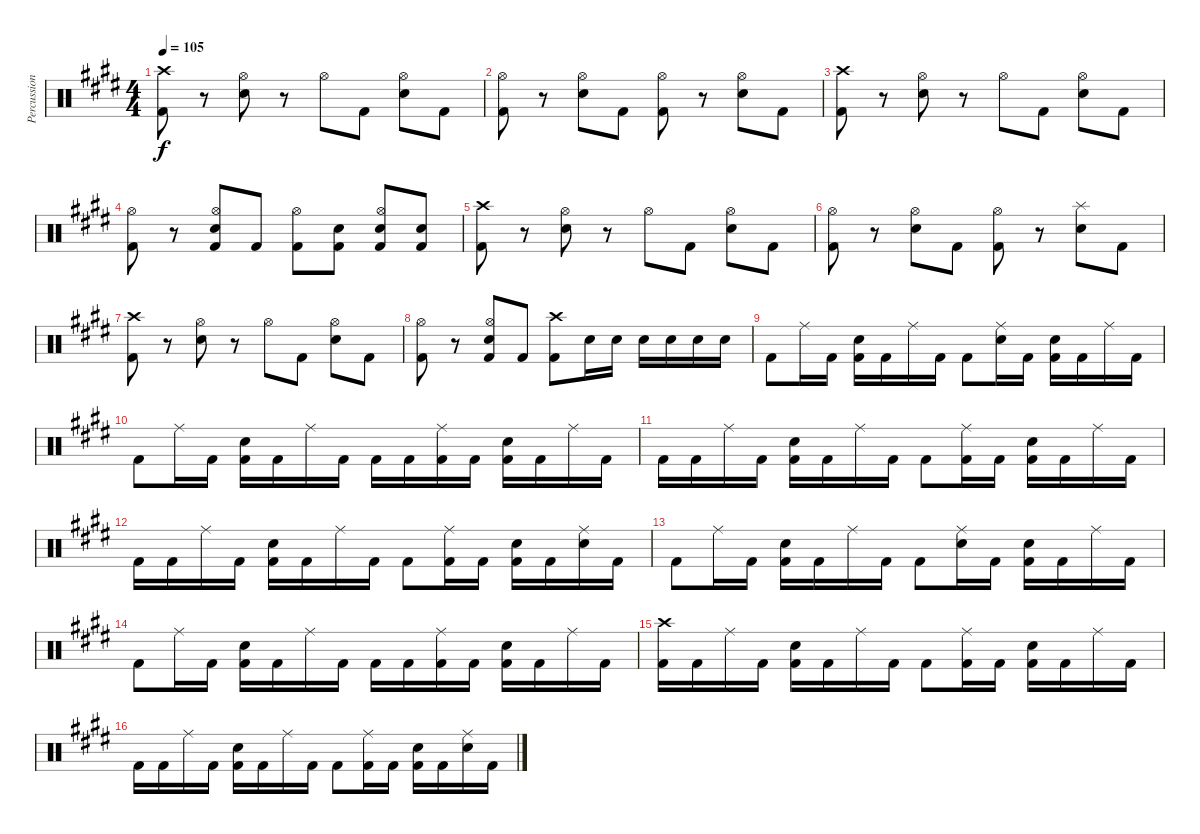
\track ("Percussion" "Percussion") {instrument percussion}
\staff {score}
\articulation defaults
\ts (4 4)
\tempo 105
\clef neutral
\ks c#minor
("Crash high (hit)" "Kick (hit) 2").8{dy f} r.8 ("Hi-Hat (open)" "Snare (hit) 2").8 r.8 "Hi-Hat (open)".8 "Kick (hit) 2".8 ("Hi-Hat (open)" "Snare (hit) 2").8 "Kick (hit) 2".8 |
("Hi-Hat (open)" "Kick (hit) 2").8 r.8 ("Hi-Hat (open)" "Snare (hit) 2").8 "Kick (hit) 2".8 ("Hi-Hat (open)" "Kick (hit) 2").8 r.8 ("Hi-Hat (open)" "Snare (hit) 2").8 "Kick (hit) 2".8 |
("Crash high (hit)" "Kick (hit) 2").8 r.8 ("Hi-Hat (open)" "Snare (hit) 2").8 r.8 "Hi-Hat (open)".8 "Kick (hit) 2".8 ("Hi-Hat (open)" "Snare (hit) 2").8 "Kick (hit) 2".8 |
("Hi-Hat (open)" "Kick (hit) 2").8 r.8 ("Hi-Hat (open)" "Snare (hit) 2" "Kick (hit) 2").8 "Kick (hit) 2".8 ("Hi-Hat (open)" "Kick (hit) 2").8 ("Snare (hit) 2" "Kick (hit) 2").8 ("Hi-Hat (open)" "Snare (hit) 2" "Kick (hit) 2").8 ("Snare (hit) 2" "Kick (hit) 2").8 |
("Crash high (hit)" "Kick (hit) 2").8 r.8 ("Hi-Hat (open)" "Snare (hit) 2").8 r.8 "Hi-Hat (open)".8 "Kick (hit) 2".8 ("Hi-Hat (open)" "Snare (hit) 2").8 "Kick (hit) 2".8 |
("Hi-Hat (open)" "Kick (hit) 2").8 r.8 ("Hi-Hat (open)" "Snare (hit) 2").8 "Kick (hit) 2".8 ("Hi-Hat (open)" "Kick (hit) 2").8 r.8 ("Splash (hit)" "Snare (hit) 2").8 "Kick (hit) 2".8 |
("Crash high (hit)" "Kick (hit) 2").8 r.8 ("Hi-Hat (open)" "Snare (hit) 2").8 r.8 "Hi-Hat (open)".8 "Kick (hit) 2".8 ("Hi-Hat (open)" "Snare (hit) 2").8 "Kick (hit) 2".8 |
("Hi-Hat (open)" "Kick (hit) 2").8 r.8 ("Hi-Hat (open)" "Snare (hit) 2" "Kick (hit) 2").8 "Kick (hit) 2".8 ("Crash high (hit)" "Kick (hit) 2").8 "Snare (hit) 2".16 "Snare (hit) 2".16 "Snare (hit) 2".16 "Snare (hit) 2".16 "Snare (hit) 2".16 "Snare (hit) 2".16 |
"Kick (hit) 2".8 "Ride (middle)".16 "Kick (hit) 2".16 ("Snare (hit) 2" "Kick (hit) 2").16 "Kick (hit) 2".16 "Ride (middle)".16 "Kick (hit) 2".16 "Kick (hit) 2".8 ("Ride (middle)" "Snare (hit) 2").16 "Kick (hit) 2".16 ("Snare (hit) 2" "Kick (hit) 2").16 "Kick (hit) 2".16 "Ride (middle)".16 "Kick (hit) 2".16 |
"Kick (hit) 2".8 "Ride (middle)".16 "Kick (hit) 2".16 ("Snare (hit) 2" "Kick (hit) 2").16 "Kick (hit) 2".16 "Ride (middle)".16 "Kick (hit) 2".16 "Kick (hit) 2".16 "Kick (hit) 2".16 ("Ride (middle)" "Kick (hit) 2").16 "Kick (hit) 2".16 ("Snare (hit) 2" "Kick (hit) 2").16 "Kick (hit) 2".16 "Ride (middle)".16 "Kick (hit) 2".16 |
"Kick (hit) 2".16 "Kick (hit) 2".16 "Ride (middle)".16 "Kick (hit) 2".16 ("Snare (hit) 2" "Kick (hit) 2").16 "Kick (hit) 2".16 "Ride (middle)".16 "Kick (hit) 2".16 "Kick (hit) 2".8 ("Ride (middle)" "Kick (hit) 2").16 "Kick (hit) 2".16 ("Snare (hit) 2" "Kick (hit) 2").16 "Kick (hit) 2".16 "Ride (middle)".16 "Kick (hit) 2".16 |
"Kick (hit) 2".16 "Kick (hit) 2".16 "Ride (middle)".16 "Kick (hit) 2".16 ("Snare (hit) 2" "Kick (hit) 2").16 "Kick (hit) 2".16 "Ride (middle)".16 "Kick (hit) 2".16 "Kick (hit) 2".8 ("Ride (middle)" "Kick (hit) 2").16 "Kick (hit) 2".16 ("Snare (hit) 2" "Kick (hit) 2").16 "Kick (hit) 2".16 ("Ride (middle)" "Snare (hit) 2").16 "Kick (hit) 2".16 |
"Kick (hit) 2".8 "Ride (middle)".16 "Kick (hit) 2".16 ("Snare (hit) 2" "Kick (hit) 2").16 "Kick (hit) 2".16 "Ride (middle)".16 "Kick (hit) 2".16 "Kick (hit) 2".8 ("Ride (middle)" "Snare (hit) 2").16 "Kick (hit) 2".16 ("Snare (hit) 2" "Kick (hit) 2").16 "Kick (hit) 2".16 "Ride (middle)".16 "Kick (hit) 2".16 |
"Kick (hit) 2".8 "Ride (middle)".16 "Kick (hit) 2".16 ("Snare (hit) 2" "Kick (hit) 2").16 "Kick (hit) 2".16 "Ride (middle)".16 "Kick (hit) 2".16 "Kick (hit) 2".16 "Kick (hit) 2".16 ("Ride (middle)" "Kick (hit) 2").16 "Kick (hit) 2".16 ("Snare (hit) 2" "Kick (hit) 2").16 "Kick (hit) 2".16 "Ride (middle)".16 "Kick (hit) 2".16 |
("Crash high (hit)" "Kick (hit) 2").16 "Kick (hit) 2".16 "Ride (middle)".16 "Kick (hit) 2".16 ("Snare (hit) 2" "Kick (hit) 2").16 "Kick (hit) 2".16 "Ride (middle)".16 "Kick (hit) 2".16 "Kick (hit) 2".8 ("Ride (middle)" "Kick (hit) 2").16 "Kick (hit) 2".16 ("Snare (hit) 2" "Kick (hit) 2").16 "Kick (hit) 2".16 "Ride (middle)".16 "Kick (hit) 2".16 |
"Kick (hit) 2".16 "Kick (hit) 2".16 "Ride (middle)".16 "Kick (hit) 2".16 ("Snare (hit) 2" "Kick (hit) 2").16 "Kick (hit) 2".16 "Ride (middle)".16 "Kick (hit) 2".16 "Kick (hit) 2".8 ("Ride (middle)" "Kick (hit) 2").16 "Kick (hit) 2".16 ("Snare (hit) 2" "Kick (hit) 2").16 "Kick (hit) 2".16 ("Ride (middle)" "Snare (hit) 2").16 "Kick (hit) 2".16
